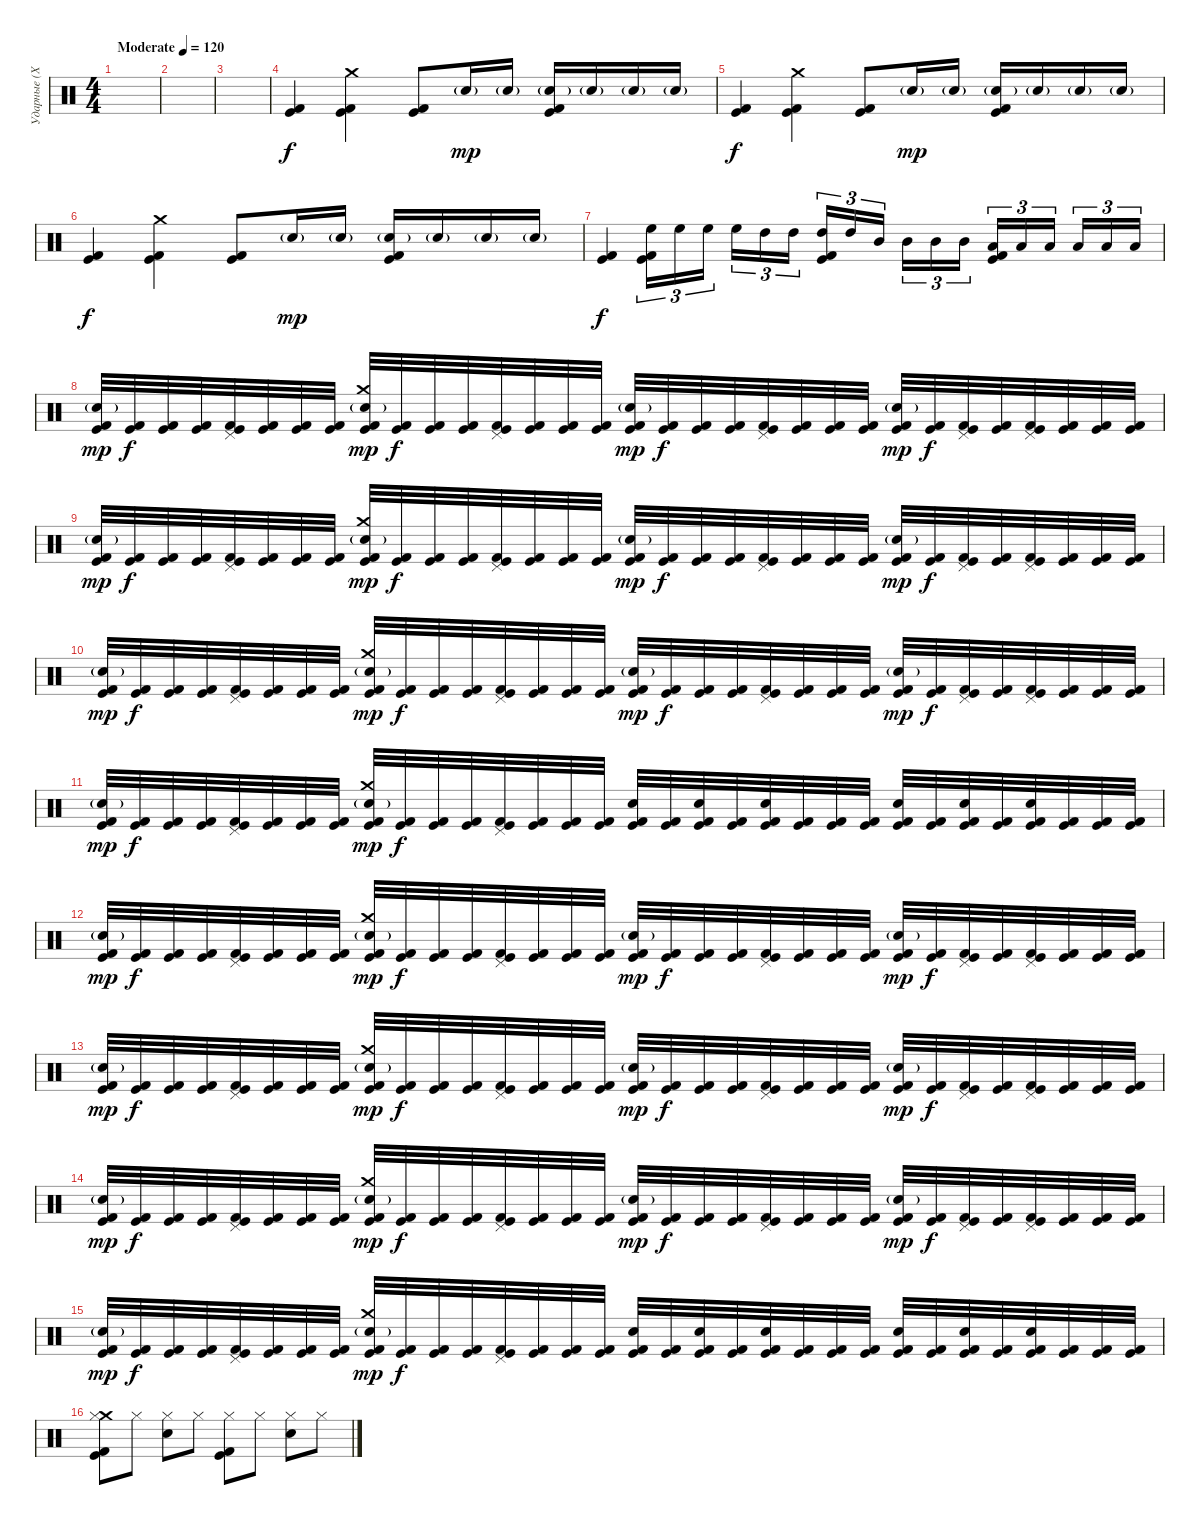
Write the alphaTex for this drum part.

\track ("Ударные (Хеллхаммер)" "Ударные (Х") {instrument percussion}
\staff {score}
\articulation defaults
\ts (4 4)
\tempo (120 "Moderate")
\clef neutral
\ks c
|
|
|
("Kick (hit) 2" "Kick (hit)").4 ("Crash medium (hit)" "Kick (hit) 2" "Kick (hit)").4 ("Kick (hit) 2" "Kick (hit)").8 "Electric Snare (hit)"{g}.16{dy mp} "Electric Snare (hit)"{g}.16 ("Electric Snare (hit)"{g} "Kick (hit) 2" "Kick (hit)").16 "Electric Snare (hit)"{g}.16 "Electric Snare (hit)"{g}.16 "Electric Snare (hit)"{g}.16 |
("Kick (hit) 2" "Kick (hit)").4{dy f} ("Crash medium (hit)" "Kick (hit) 2" "Kick (hit)").4 ("Kick (hit) 2" "Kick (hit)").8 "Electric Snare (hit)"{g}.16{dy mp} "Electric Snare (hit)"{g}.16 ("Electric Snare (hit)"{g} "Kick (hit) 2" "Kick (hit)").16 "Electric Snare (hit)"{g}.16 "Electric Snare (hit)"{g}.16 "Electric Snare (hit)"{g}.16 |
("Kick (hit) 2" "Kick (hit)").4{dy f} ("Crash medium (hit)" "Kick (hit) 2" "Kick (hit)").4 ("Kick (hit) 2" "Kick (hit)").8 "Electric Snare (hit)"{g}.16{dy mp} "Electric Snare (hit)"{g}.16 ("Electric Snare (hit)"{g} "Kick (hit) 2" "Kick (hit)").16 "Electric Snare (hit)"{g}.16 "Electric Snare (hit)"{g}.16 "Electric Snare (hit)"{g}.16 |
("Kick (hit) 2" "Kick (hit)").4{dy f} ("Kick (hit) 2" "Kick (hit)" "High Floor Tom (hit)").16{tu (3 2)} "High Floor Tom (hit)".16{tu (3 2)} "High Floor Tom (hit)".16{tu (3 2) beam splitsecondary} "High Floor Tom (hit)".16{tu (3 2)} "High Tom (hit)".16{tu (3 2)} "High Tom (hit)".16{tu (3 2)} ("Kick (hit) 2" "Kick (hit)" "High Tom (hit)").16{tu (3 2)} "High Tom (hit)".16{tu (3 2)} "Mid Tom (hit)".16{tu (3 2) beam splitsecondary} "Mid Tom (hit)".16{tu (3 2)} "Mid Tom (hit)".16{tu (3 2)} "Mid Tom (hit)".16{tu (3 2)} ("Kick (hit) 2" "Kick (hit)" "Low Tom (hit)").16{tu (3 2)} "Low Tom (hit)".16{tu (3 2)} "Low Tom (hit)".16{tu (3 2) beam splitsecondary} "Low Tom (hit)".16{tu (3 2)} "Low Tom (hit)".16{tu (3 2)} "Low Tom (hit)".16{tu (3 2)} |
("Electric Snare (hit)"{g} "Kick (hit) 2" "Kick (hit)").32{dy mp} ("Kick (hit) 2" "Kick (hit)").32{dy f} ("Kick (hit) 2" "Kick (hit)").32 ("Kick (hit) 2" "Kick (hit)").32 ("Pedal Hi-Hat (hit)" "Kick (hit) 2" "Kick (hit)").32 ("Kick (hit) 2" "Kick (hit)").32 ("Kick (hit) 2" "Kick (hit)").32 ("Kick (hit) 2" "Kick (hit)").32 ("Electric Snare (hit)"{g} "Crash medium (hit)" "Kick (hit) 2" "Kick (hit)").32{dy mp} ("Kick (hit) 2" "Kick (hit)").32{dy f} ("Kick (hit) 2" "Kick (hit)").32 ("Kick (hit) 2" "Kick (hit)").32 ("Pedal Hi-Hat (hit)" "Kick (hit) 2" "Kick (hit)").32 ("Kick (hit) 2" "Kick (hit)").32 ("Kick (hit) 2" "Kick (hit)").32 ("Kick (hit) 2" "Kick (hit)").32 ("Electric Snare (hit)"{g} "Kick (hit) 2" "Kick (hit)").32{dy mp} ("Kick (hit) 2" "Kick (hit)").32{dy f} ("Kick (hit) 2" "Kick (hit)").32 ("Kick (hit) 2" "Kick (hit)").32 ("Pedal Hi-Hat (hit)" "Kick (hit) 2" "Kick (hit)").32 ("Kick (hit) 2" "Kick (hit)").32 ("Kick (hit) 2" "Kick (hit)").32 ("Kick (hit) 2" "Kick (hit)").32 ("Electric Snare (hit)"{g} "Kick (hit) 2" "Kick (hit)").32{dy mp} ("Kick (hit) 2" "Kick (hit)").32{dy f} ("Pedal Hi-Hat (hit)" "Kick (hit) 2" "Kick (hit)").32 ("Kick (hit) 2" "Kick (hit)").32 ("Pedal Hi-Hat (hit)" "Kick (hit) 2" "Kick (hit)").32 ("Kick (hit) 2" "Kick (hit)").32 ("Kick (hit) 2" "Kick (hit)").32 ("Kick (hit) 2" "Kick (hit)").32 |
("Electric Snare (hit)"{g} "Kick (hit) 2" "Kick (hit)").32{dy mp} ("Kick (hit) 2" "Kick (hit)").32{dy f} ("Kick (hit) 2" "Kick (hit)").32 ("Kick (hit) 2" "Kick (hit)").32 ("Pedal Hi-Hat (hit)" "Kick (hit) 2" "Kick (hit)").32 ("Kick (hit) 2" "Kick (hit)").32 ("Kick (hit) 2" "Kick (hit)").32 ("Kick (hit) 2" "Kick (hit)").32 ("Electric Snare (hit)"{g} "Crash medium (hit)" "Kick (hit) 2" "Kick (hit)").32{dy mp} ("Kick (hit) 2" "Kick (hit)").32{dy f} ("Kick (hit) 2" "Kick (hit)").32 ("Kick (hit) 2" "Kick (hit)").32 ("Pedal Hi-Hat (hit)" "Kick (hit) 2" "Kick (hit)").32 ("Kick (hit) 2" "Kick (hit)").32 ("Kick (hit) 2" "Kick (hit)").32 ("Kick (hit) 2" "Kick (hit)").32 ("Electric Snare (hit)"{g} "Kick (hit) 2" "Kick (hit)").32{dy mp} ("Kick (hit) 2" "Kick (hit)").32{dy f} ("Kick (hit) 2" "Kick (hit)").32 ("Kick (hit) 2" "Kick (hit)").32 ("Pedal Hi-Hat (hit)" "Kick (hit) 2" "Kick (hit)").32 ("Kick (hit) 2" "Kick (hit)").32 ("Kick (hit) 2" "Kick (hit)").32 ("Kick (hit) 2" "Kick (hit)").32 ("Electric Snare (hit)"{g} "Kick (hit) 2" "Kick (hit)").32{dy mp} ("Kick (hit) 2" "Kick (hit)").32{dy f} ("Pedal Hi-Hat (hit)" "Kick (hit) 2" "Kick (hit)").32 ("Kick (hit) 2" "Kick (hit)").32 ("Pedal Hi-Hat (hit)" "Kick (hit) 2" "Kick (hit)").32 ("Kick (hit) 2" "Kick (hit)").32 ("Kick (hit) 2" "Kick (hit)").32 ("Kick (hit) 2" "Kick (hit)").32 |
("Electric Snare (hit)"{g} "Kick (hit) 2" "Kick (hit)").32{dy mp} ("Kick (hit) 2" "Kick (hit)").32{dy f} ("Kick (hit) 2" "Kick (hit)").32 ("Kick (hit) 2" "Kick (hit)").32 ("Pedal Hi-Hat (hit)" "Kick (hit) 2" "Kick (hit)").32 ("Kick (hit) 2" "Kick (hit)").32 ("Kick (hit) 2" "Kick (hit)").32 ("Kick (hit) 2" "Kick (hit)").32 ("Electric Snare (hit)"{g} "Crash medium (hit)" "Kick (hit) 2" "Kick (hit)").32{dy mp} ("Kick (hit) 2" "Kick (hit)").32{dy f} ("Kick (hit) 2" "Kick (hit)").32 ("Kick (hit) 2" "Kick (hit)").32 ("Pedal Hi-Hat (hit)" "Kick (hit) 2" "Kick (hit)").32 ("Kick (hit) 2" "Kick (hit)").32 ("Kick (hit) 2" "Kick (hit)").32 ("Kick (hit) 2" "Kick (hit)").32 ("Electric Snare (hit)"{g} "Kick (hit) 2" "Kick (hit)").32{dy mp} ("Kick (hit) 2" "Kick (hit)").32{dy f} ("Kick (hit) 2" "Kick (hit)").32 ("Kick (hit) 2" "Kick (hit)").32 ("Pedal Hi-Hat (hit)" "Kick (hit) 2" "Kick (hit)").32 ("Kick (hit) 2" "Kick (hit)").32 ("Kick (hit) 2" "Kick (hit)").32 ("Kick (hit) 2" "Kick (hit)").32 ("Electric Snare (hit)"{g} "Kick (hit) 2" "Kick (hit)").32{dy mp} ("Kick (hit) 2" "Kick (hit)").32{dy f} ("Pedal Hi-Hat (hit)" "Kick (hit) 2" "Kick (hit)").32 ("Kick (hit) 2" "Kick (hit)").32 ("Pedal Hi-Hat (hit)" "Kick (hit) 2" "Kick (hit)").32 ("Kick (hit) 2" "Kick (hit)").32 ("Kick (hit) 2" "Kick (hit)").32 ("Kick (hit) 2" "Kick (hit)").32 |
("Electric Snare (hit)"{g} "Kick (hit) 2" "Kick (hit)").32{dy mp} ("Kick (hit) 2" "Kick (hit)").32{dy f} ("Kick (hit) 2" "Kick (hit)").32 ("Kick (hit) 2" "Kick (hit)").32 ("Pedal Hi-Hat (hit)" "Kick (hit) 2" "Kick (hit)").32 ("Kick (hit) 2" "Kick (hit)").32 ("Kick (hit) 2" "Kick (hit)").32 ("Kick (hit) 2" "Kick (hit)").32 ("Electric Snare (hit)"{g} "Crash medium (hit)" "Kick (hit) 2" "Kick (hit)").32{dy mp} ("Kick (hit) 2" "Kick (hit)").32{dy f} ("Kick (hit) 2" "Kick (hit)").32 ("Kick (hit) 2" "Kick (hit)").32 ("Pedal Hi-Hat (hit)" "Kick (hit) 2" "Kick (hit)").32 ("Kick (hit) 2" "Kick (hit)").32 ("Kick (hit) 2" "Kick (hit)").32 ("Kick (hit) 2" "Kick (hit)").32 ("Electric Snare (hit)" "Kick (hit) 2" "Kick (hit)").32 ("Kick (hit) 2" "Kick (hit)").32 ("Electric Snare (hit)" "Kick (hit) 2" "Kick (hit)").32 ("Kick (hit) 2" "Kick (hit)").32 ("Electric Snare (hit)" "Kick (hit) 2" "Kick (hit)").32 ("Kick (hit) 2" "Kick (hit)").32 ("Kick (hit) 2" "Kick (hit)").32 ("Kick (hit) 2" "Kick (hit)").32 ("Electric Snare (hit)" "Kick (hit) 2" "Kick (hit)").32 ("Kick (hit) 2" "Kick (hit)").32 ("Electric Snare (hit)" "Kick (hit) 2" "Kick (hit)").32 ("Kick (hit) 2" "Kick (hit)").32 ("Electric Snare (hit)" "Kick (hit) 2" "Kick (hit)").32 ("Kick (hit) 2" "Kick (hit)").32 ("Kick (hit) 2" "Kick (hit)").32 ("Kick (hit) 2" "Kick (hit)").32 |
("Electric Snare (hit)"{g} "Kick (hit) 2" "Kick (hit)").32{dy mp} ("Kick (hit) 2" "Kick (hit)").32{dy f} ("Kick (hit) 2" "Kick (hit)").32 ("Kick (hit) 2" "Kick (hit)").32 ("Pedal Hi-Hat (hit)" "Kick (hit) 2" "Kick (hit)").32 ("Kick (hit) 2" "Kick (hit)").32 ("Kick (hit) 2" "Kick (hit)").32 ("Kick (hit) 2" "Kick (hit)").32 ("Electric Snare (hit)"{g} "Crash medium (hit)" "Kick (hit) 2" "Kick (hit)").32{dy mp} ("Kick (hit) 2" "Kick (hit)").32{dy f} ("Kick (hit) 2" "Kick (hit)").32 ("Kick (hit) 2" "Kick (hit)").32 ("Pedal Hi-Hat (hit)" "Kick (hit) 2" "Kick (hit)").32 ("Kick (hit) 2" "Kick (hit)").32 ("Kick (hit) 2" "Kick (hit)").32 ("Kick (hit) 2" "Kick (hit)").32 ("Electric Snare (hit)"{g} "Kick (hit) 2" "Kick (hit)").32{dy mp} ("Kick (hit) 2" "Kick (hit)").32{dy f} ("Kick (hit) 2" "Kick (hit)").32 ("Kick (hit) 2" "Kick (hit)").32 ("Pedal Hi-Hat (hit)" "Kick (hit) 2" "Kick (hit)").32 ("Kick (hit) 2" "Kick (hit)").32 ("Kick (hit) 2" "Kick (hit)").32 ("Kick (hit) 2" "Kick (hit)").32 ("Electric Snare (hit)"{g} "Kick (hit) 2" "Kick (hit)").32{dy mp} ("Kick (hit) 2" "Kick (hit)").32{dy f} ("Pedal Hi-Hat (hit)" "Kick (hit) 2" "Kick (hit)").32 ("Kick (hit) 2" "Kick (hit)").32 ("Pedal Hi-Hat (hit)" "Kick (hit) 2" "Kick (hit)").32 ("Kick (hit) 2" "Kick (hit)").32 ("Kick (hit) 2" "Kick (hit)").32 ("Kick (hit) 2" "Kick (hit)").32 |
("Electric Snare (hit)"{g} "Kick (hit) 2" "Kick (hit)").32{dy mp} ("Kick (hit) 2" "Kick (hit)").32{dy f} ("Kick (hit) 2" "Kick (hit)").32 ("Kick (hit) 2" "Kick (hit)").32 ("Pedal Hi-Hat (hit)" "Kick (hit) 2" "Kick (hit)").32 ("Kick (hit) 2" "Kick (hit)").32 ("Kick (hit) 2" "Kick (hit)").32 ("Kick (hit) 2" "Kick (hit)").32 ("Electric Snare (hit)"{g} "Crash medium (hit)" "Kick (hit) 2" "Kick (hit)").32{dy mp} ("Kick (hit) 2" "Kick (hit)").32{dy f} ("Kick (hit) 2" "Kick (hit)").32 ("Kick (hit) 2" "Kick (hit)").32 ("Pedal Hi-Hat (hit)" "Kick (hit) 2" "Kick (hit)").32 ("Kick (hit) 2" "Kick (hit)").32 ("Kick (hit) 2" "Kick (hit)").32 ("Kick (hit) 2" "Kick (hit)").32 ("Electric Snare (hit)"{g} "Kick (hit) 2" "Kick (hit)").32{dy mp} ("Kick (hit) 2" "Kick (hit)").32{dy f} ("Kick (hit) 2" "Kick (hit)").32 ("Kick (hit) 2" "Kick (hit)").32 ("Pedal Hi-Hat (hit)" "Kick (hit) 2" "Kick (hit)").32 ("Kick (hit) 2" "Kick (hit)").32 ("Kick (hit) 2" "Kick (hit)").32 ("Kick (hit) 2" "Kick (hit)").32 ("Electric Snare (hit)"{g} "Kick (hit) 2" "Kick (hit)").32{dy mp} ("Kick (hit) 2" "Kick (hit)").32{dy f} ("Pedal Hi-Hat (hit)" "Kick (hit) 2" "Kick (hit)").32 ("Kick (hit) 2" "Kick (hit)").32 ("Pedal Hi-Hat (hit)" "Kick (hit) 2" "Kick (hit)").32 ("Kick (hit) 2" "Kick (hit)").32 ("Kick (hit) 2" "Kick (hit)").32 ("Kick (hit) 2" "Kick (hit)").32 |
("Electric Snare (hit)"{g} "Kick (hit) 2" "Kick (hit)").32{dy mp} ("Kick (hit) 2" "Kick (hit)").32{dy f} ("Kick (hit) 2" "Kick (hit)").32 ("Kick (hit) 2" "Kick (hit)").32 ("Pedal Hi-Hat (hit)" "Kick (hit) 2" "Kick (hit)").32 ("Kick (hit) 2" "Kick (hit)").32 ("Kick (hit) 2" "Kick (hit)").32 ("Kick (hit) 2" "Kick (hit)").32 ("Electric Snare (hit)"{g} "Crash medium (hit)" "Kick (hit) 2" "Kick (hit)").32{dy mp} ("Kick (hit) 2" "Kick (hit)").32{dy f} ("Kick (hit) 2" "Kick (hit)").32 ("Kick (hit) 2" "Kick (hit)").32 ("Pedal Hi-Hat (hit)" "Kick (hit) 2" "Kick (hit)").32 ("Kick (hit) 2" "Kick (hit)").32 ("Kick (hit) 2" "Kick (hit)").32 ("Kick (hit) 2" "Kick (hit)").32 ("Electric Snare (hit)"{g} "Kick (hit) 2" "Kick (hit)").32{dy mp} ("Kick (hit) 2" "Kick (hit)").32{dy f} ("Kick (hit) 2" "Kick (hit)").32 ("Kick (hit) 2" "Kick (hit)").32 ("Pedal Hi-Hat (hit)" "Kick (hit) 2" "Kick (hit)").32 ("Kick (hit) 2" "Kick (hit)").32 ("Kick (hit) 2" "Kick (hit)").32 ("Kick (hit) 2" "Kick (hit)").32 ("Electric Snare (hit)"{g} "Kick (hit) 2" "Kick (hit)").32{dy mp} ("Kick (hit) 2" "Kick (hit)").32{dy f} ("Pedal Hi-Hat (hit)" "Kick (hit) 2" "Kick (hit)").32 ("Kick (hit) 2" "Kick (hit)").32 ("Pedal Hi-Hat (hit)" "Kick (hit) 2" "Kick (hit)").32 ("Kick (hit) 2" "Kick (hit)").32 ("Kick (hit) 2" "Kick (hit)").32 ("Kick (hit) 2" "Kick (hit)").32 |
("Electric Snare (hit)"{g} "Kick (hit) 2" "Kick (hit)").32{dy mp} ("Kick (hit) 2" "Kick (hit)").32{dy f} ("Kick (hit) 2" "Kick (hit)").32 ("Kick (hit) 2" "Kick (hit)").32 ("Pedal Hi-Hat (hit)" "Kick (hit) 2" "Kick (hit)").32 ("Kick (hit) 2" "Kick (hit)").32 ("Kick (hit) 2" "Kick (hit)").32 ("Kick (hit) 2" "Kick (hit)").32 ("Electric Snare (hit)"{g} "Crash medium (hit)" "Kick (hit) 2" "Kick (hit)").32{dy mp} ("Kick (hit) 2" "Kick (hit)").32{dy f} ("Kick (hit) 2" "Kick (hit)").32 ("Kick (hit) 2" "Kick (hit)").32 ("Pedal Hi-Hat (hit)" "Kick (hit) 2" "Kick (hit)").32 ("Kick (hit) 2" "Kick (hit)").32 ("Kick (hit) 2" "Kick (hit)").32 ("Kick (hit) 2" "Kick (hit)").32 ("Electric Snare (hit)" "Kick (hit) 2" "Kick (hit)").32 ("Kick (hit) 2" "Kick (hit)").32 ("Electric Snare (hit)" "Kick (hit) 2" "Kick (hit)").32 ("Kick (hit) 2" "Kick (hit)").32 ("Electric Snare (hit)" "Kick (hit) 2" "Kick (hit)").32 ("Kick (hit) 2" "Kick (hit)").32 ("Kick (hit) 2" "Kick (hit)").32 ("Kick (hit) 2" "Kick (hit)").32 ("Electric Snare (hit)" "Kick (hit) 2" "Kick (hit)").32 ("Kick (hit) 2" "Kick (hit)").32 ("Electric Snare (hit)" "Kick (hit) 2" "Kick (hit)").32 ("Kick (hit) 2" "Kick (hit)").32 ("Electric Snare (hit)" "Kick (hit) 2" "Kick (hit)").32 ("Kick (hit) 2" "Kick (hit)").32 ("Kick (hit) 2" "Kick (hit)").32 ("Kick (hit) 2" "Kick (hit)").32 |
("Crash medium (hit)" "Hi-Hat (closed)" "Kick (hit) 2" "Kick (hit)").8 "Hi-Hat (closed)".8 ("Hi-Hat (closed)" "Electric Snare (hit)").8 "Hi-Hat (closed)".8 ("Hi-Hat (closed)" "Kick (hit) 2" "Kick (hit)").8 "Hi-Hat (closed)".8 ("Hi-Hat (closed)" "Electric Snare (hit)").8 "Hi-Hat (closed)".8
